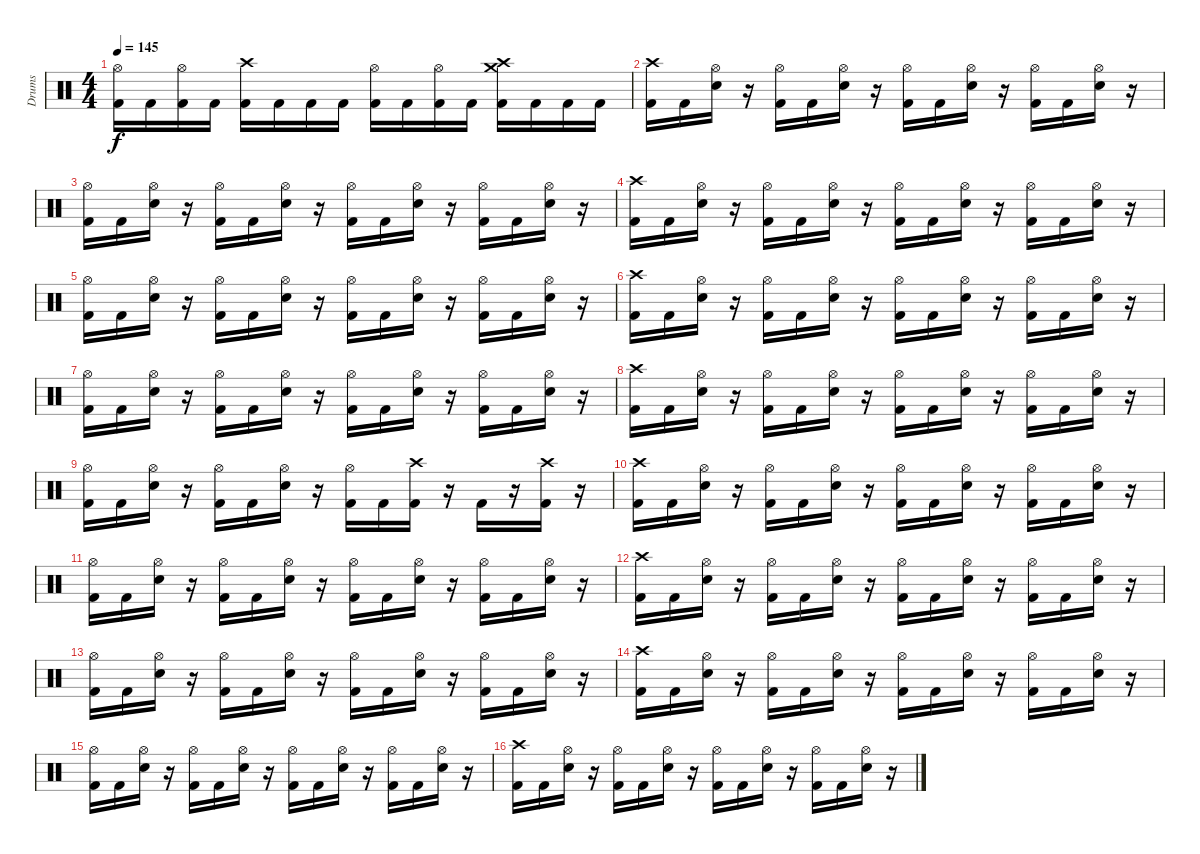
\track ("Drums" "Drums") {instrument percussion}
\staff {score}
\articulation defaults
\ts (4 4)
\tempo 145
\clef neutral
\ks c
("Hi-Hat (open)" "Kick (hit) 2").16{dy f} "Kick (hit) 2".16 ("Hi-Hat (open)" "Kick (hit) 2").16 "Kick (hit) 2".16 ("Crash high (hit)" "Kick (hit) 2").16 "Kick (hit) 2".16 "Kick (hit) 2".16 "Kick (hit) 2".16 ("Hi-Hat (open)" "Kick (hit) 2").16 "Kick (hit) 2".16 ("Hi-Hat (open)" "Kick (hit) 2").16 "Kick (hit) 2".16 ("Crash medium (hit)" "Crash high (hit)" "Kick (hit) 2").16 "Kick (hit) 2".16 "Kick (hit) 2".16 "Kick (hit) 2".16 |
("Crash high (hit)" "Kick (hit) 2").16 "Kick (hit) 2".16 ("Hi-Hat (open)" "Electric Snare (hit)").16 r.16 ("Hi-Hat (open)" "Kick (hit) 2").16 "Kick (hit) 2".16 ("Hi-Hat (open)" "Electric Snare (hit)").16 r.16 ("Hi-Hat (open)" "Kick (hit) 2").16 "Kick (hit) 2".16 ("Hi-Hat (open)" "Electric Snare (hit)").16 r.16 ("Hi-Hat (open)" "Kick (hit) 2").16 "Kick (hit) 2".16 ("Hi-Hat (open)" "Electric Snare (hit)").16 r.16 |
("Hi-Hat (open)" "Kick (hit) 2").16 "Kick (hit) 2".16 ("Hi-Hat (open)" "Electric Snare (hit)").16 r.16 ("Hi-Hat (open)" "Kick (hit) 2").16 "Kick (hit) 2".16 ("Hi-Hat (open)" "Electric Snare (hit)").16 r.16 ("Hi-Hat (open)" "Kick (hit) 2").16 "Kick (hit) 2".16 ("Hi-Hat (open)" "Electric Snare (hit)").16 r.16 ("Hi-Hat (open)" "Kick (hit) 2").16 "Kick (hit) 2".16 ("Hi-Hat (open)" "Electric Snare (hit)").16 r.16 |
("Crash high (hit)" "Kick (hit) 2").16 "Kick (hit) 2".16 ("Hi-Hat (open)" "Electric Snare (hit)").16 r.16 ("Hi-Hat (open)" "Kick (hit) 2").16 "Kick (hit) 2".16 ("Hi-Hat (open)" "Electric Snare (hit)").16 r.16 ("Hi-Hat (open)" "Kick (hit) 2").16 "Kick (hit) 2".16 ("Hi-Hat (open)" "Electric Snare (hit)").16 r.16 ("Hi-Hat (open)" "Kick (hit) 2").16 "Kick (hit) 2".16 ("Hi-Hat (open)" "Electric Snare (hit)").16 r.16 |
("Hi-Hat (open)" "Kick (hit) 2").16 "Kick (hit) 2".16 ("Hi-Hat (open)" "Electric Snare (hit)").16 r.16 ("Hi-Hat (open)" "Kick (hit) 2").16 "Kick (hit) 2".16 ("Hi-Hat (open)" "Electric Snare (hit)").16 r.16 ("Hi-Hat (open)" "Kick (hit) 2").16 "Kick (hit) 2".16 ("Hi-Hat (open)" "Electric Snare (hit)").16 r.16 ("Hi-Hat (open)" "Kick (hit) 2").16 "Kick (hit) 2".16 ("Hi-Hat (open)" "Electric Snare (hit)").16 r.16 |
("Crash high (hit)" "Kick (hit) 2").16 "Kick (hit) 2".16 ("Hi-Hat (open)" "Electric Snare (hit)").16 r.16 ("Hi-Hat (open)" "Kick (hit) 2").16 "Kick (hit) 2".16 ("Hi-Hat (open)" "Electric Snare (hit)").16 r.16 ("Hi-Hat (open)" "Kick (hit) 2").16 "Kick (hit) 2".16 ("Hi-Hat (open)" "Electric Snare (hit)").16 r.16 ("Hi-Hat (open)" "Kick (hit) 2").16 "Kick (hit) 2".16 ("Hi-Hat (open)" "Electric Snare (hit)").16 r.16 |
("Hi-Hat (open)" "Kick (hit) 2").16 "Kick (hit) 2".16 ("Hi-Hat (open)" "Electric Snare (hit)").16 r.16 ("Hi-Hat (open)" "Kick (hit) 2").16 "Kick (hit) 2".16 ("Hi-Hat (open)" "Electric Snare (hit)").16 r.16 ("Hi-Hat (open)" "Kick (hit) 2").16 "Kick (hit) 2".16 ("Hi-Hat (open)" "Electric Snare (hit)").16 r.16 ("Hi-Hat (open)" "Kick (hit) 2").16 "Kick (hit) 2".16 ("Hi-Hat (open)" "Electric Snare (hit)").16 r.16 |
("Crash high (hit)" "Kick (hit) 2").16 "Kick (hit) 2".16 ("Hi-Hat (open)" "Electric Snare (hit)").16 r.16 ("Hi-Hat (open)" "Kick (hit) 2").16 "Kick (hit) 2".16 ("Hi-Hat (open)" "Electric Snare (hit)").16 r.16 ("Hi-Hat (open)" "Kick (hit) 2").16 "Kick (hit) 2".16 ("Hi-Hat (open)" "Electric Snare (hit)").16 r.16 ("Hi-Hat (open)" "Kick (hit) 2").16 "Kick (hit) 2".16 ("Hi-Hat (open)" "Electric Snare (hit)").16 r.16 |
("Hi-Hat (open)" "Kick (hit) 2").16 "Kick (hit) 2".16 ("Hi-Hat (open)" "Electric Snare (hit)").16 r.16 ("Hi-Hat (open)" "Kick (hit) 2").16 "Kick (hit) 2".16 ("Hi-Hat (open)" "Electric Snare (hit)").16 r.16 ("Hi-Hat (open)" "Kick (hit) 2").16 "Kick (hit) 2".16 ("Crash high (hit)" "Kick (hit) 2").16 r.16 "Kick (hit) 2".16 r.16 ("Crash high (hit)" "Kick (hit) 2").16 r.16 |
("Crash high (hit)" "Kick (hit) 2").16 "Kick (hit) 2".16 ("Hi-Hat (open)" "Electric Snare (hit)").16 r.16 ("Hi-Hat (open)" "Kick (hit) 2").16 "Kick (hit) 2".16 ("Hi-Hat (open)" "Electric Snare (hit)").16 r.16 ("Hi-Hat (open)" "Kick (hit) 2").16 "Kick (hit) 2".16 ("Hi-Hat (open)" "Electric Snare (hit)").16 r.16 ("Hi-Hat (open)" "Kick (hit) 2").16 "Kick (hit) 2".16 ("Hi-Hat (open)" "Electric Snare (hit)").16 r.16 |
("Hi-Hat (open)" "Kick (hit) 2").16 "Kick (hit) 2".16 ("Hi-Hat (open)" "Electric Snare (hit)").16 r.16 ("Hi-Hat (open)" "Kick (hit) 2").16 "Kick (hit) 2".16 ("Hi-Hat (open)" "Electric Snare (hit)").16 r.16 ("Hi-Hat (open)" "Kick (hit) 2").16 "Kick (hit) 2".16 ("Hi-Hat (open)" "Electric Snare (hit)").16 r.16 ("Hi-Hat (open)" "Kick (hit) 2").16 "Kick (hit) 2".16 ("Hi-Hat (open)" "Electric Snare (hit)").16 r.16 |
("Crash high (hit)" "Kick (hit) 2").16 "Kick (hit) 2".16 ("Hi-Hat (open)" "Electric Snare (hit)").16 r.16 ("Hi-Hat (open)" "Kick (hit) 2").16 "Kick (hit) 2".16 ("Hi-Hat (open)" "Electric Snare (hit)").16 r.16 ("Hi-Hat (open)" "Kick (hit) 2").16 "Kick (hit) 2".16 ("Hi-Hat (open)" "Electric Snare (hit)").16 r.16 ("Hi-Hat (open)" "Kick (hit) 2").16 "Kick (hit) 2".16 ("Hi-Hat (open)" "Electric Snare (hit)").16 r.16 |
("Hi-Hat (open)" "Kick (hit) 2").16 "Kick (hit) 2".16 ("Hi-Hat (open)" "Electric Snare (hit)").16 r.16 ("Hi-Hat (open)" "Kick (hit) 2").16 "Kick (hit) 2".16 ("Hi-Hat (open)" "Electric Snare (hit)").16 r.16 ("Hi-Hat (open)" "Kick (hit) 2").16 "Kick (hit) 2".16 ("Hi-Hat (open)" "Electric Snare (hit)").16 r.16 ("Hi-Hat (open)" "Kick (hit) 2").16 "Kick (hit) 2".16 ("Hi-Hat (open)" "Electric Snare (hit)").16 r.16 |
("Crash high (hit)" "Kick (hit) 2").16 "Kick (hit) 2".16 ("Hi-Hat (open)" "Electric Snare (hit)").16 r.16 ("Hi-Hat (open)" "Kick (hit) 2").16 "Kick (hit) 2".16 ("Hi-Hat (open)" "Electric Snare (hit)").16 r.16 ("Hi-Hat (open)" "Kick (hit) 2").16 "Kick (hit) 2".16 ("Hi-Hat (open)" "Electric Snare (hit)").16 r.16 ("Hi-Hat (open)" "Kick (hit) 2").16 "Kick (hit) 2".16 ("Hi-Hat (open)" "Electric Snare (hit)").16 r.16 |
("Hi-Hat (open)" "Kick (hit) 2").16 "Kick (hit) 2".16 ("Hi-Hat (open)" "Electric Snare (hit)").16 r.16 ("Hi-Hat (open)" "Kick (hit) 2").16 "Kick (hit) 2".16 ("Hi-Hat (open)" "Electric Snare (hit)").16 r.16 ("Hi-Hat (open)" "Kick (hit) 2").16 "Kick (hit) 2".16 ("Hi-Hat (open)" "Electric Snare (hit)").16 r.16 ("Hi-Hat (open)" "Kick (hit) 2").16 "Kick (hit) 2".16 ("Hi-Hat (open)" "Electric Snare (hit)").16 r.16 |
("Crash high (hit)" "Kick (hit) 2").16 "Kick (hit) 2".16 ("Hi-Hat (open)" "Electric Snare (hit)").16 r.16 ("Hi-Hat (open)" "Kick (hit) 2").16 "Kick (hit) 2".16 ("Hi-Hat (open)" "Electric Snare (hit)").16 r.16 ("Hi-Hat (open)" "Kick (hit) 2").16 "Kick (hit) 2".16 ("Hi-Hat (open)" "Electric Snare (hit)").16 r.16 ("Hi-Hat (open)" "Kick (hit) 2").16 "Kick (hit) 2".16 ("Hi-Hat (open)" "Electric Snare (hit)").16 r.16
